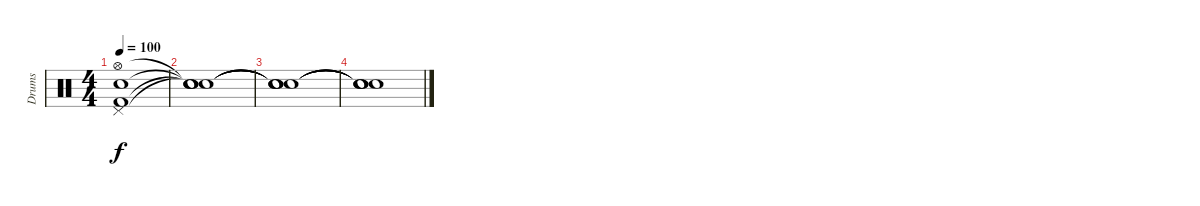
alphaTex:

\track ("Drums" "Drums") {instrument percussion}
\staff {score}
\articulation defaults
\ts (4 4)
\tempo 100
\clef neutral
\ks c
("Kick (hit) 2" "Electric Snare (hit)" "Pedal Hi-Hat (hit)" "Hi-Hat (open)").1{dy f} |
("Snare (hit)"{t} "Snare (hit)"{t} "Snare (hit)"{t} "Snare (hit)"{t}).1 |
("Snare (hit)"{t} "Snare (hit)"{t} "Snare (hit)"{t} "Snare (hit)"{t}).1 |
("Snare (hit)"{t} "Snare (hit)"{t} "Snare (hit)"{t} "Snare (hit)"{t}).1
